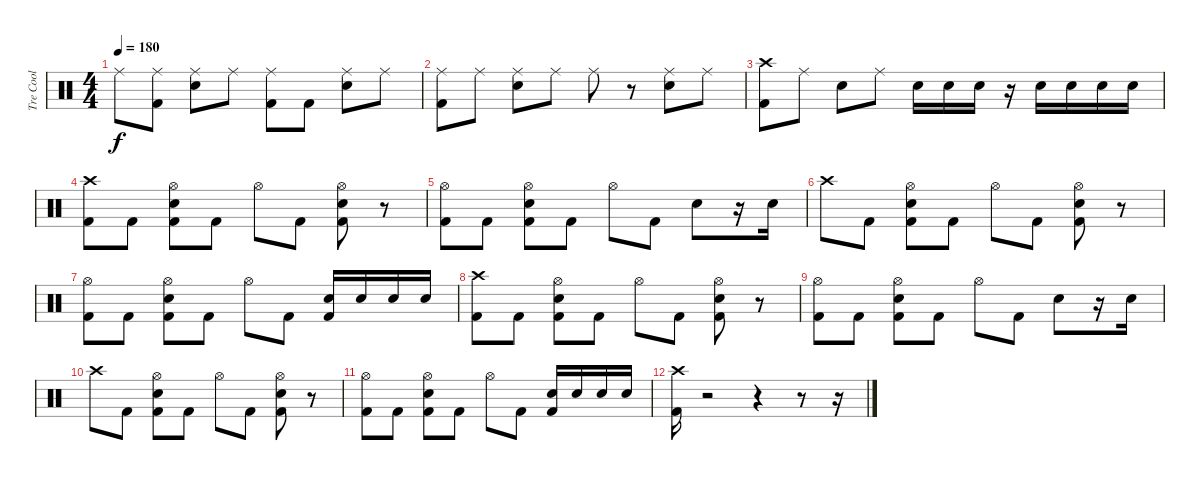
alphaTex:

\track ("Tre Cool" "Tre Cool") {instrument percussion}
\staff {score}
\articulation defaults
\ts (4 4)
\tempo 180
\clef neutral
\ks c "Ride (middle)".8{dy f}
("Kick (hit) 2" "Ride (middle)").8 ("Snare (hit) 2" "Ride (middle)").8 "Ride (middle)".8 ("Kick (hit) 2" "Ride (middle)").8 "Kick (hit) 2".8 ("Snare (hit) 2" "Ride (middle)").8 "Ride (middle)".8 |
("Ride (middle)" "Kick (hit) 2").8 "Ride (middle)".8 ("Ride (middle)" "Snare (hit) 2").8 "Ride (middle)".8 "Ride (middle)".8 r.8 ("Ride (middle)" "Snare (hit) 2").8 "Ride (middle)".8 |
("Crash high (hit)" "Kick (hit) 2").8 "Ride (middle)".8 "Snare (hit) 2".8 "Ride (middle)".8 "Snare (hit) 2".16 "Snare (hit) 2".16 "Snare (hit) 2".16 r.16 "Snare (hit) 2".16 "Snare (hit) 2".16 "Snare (hit) 2".16 "Snare (hit) 2".16 |
("Kick (hit) 2" "Crash high (hit)").8 "Kick (hit) 2".8 ("Snare (hit) 2" "Hi-Hat (open)" "Kick (hit) 2").8 "Kick (hit) 2".8 "Hi-Hat (open)".8 "Kick (hit) 2".8 ("Snare (hit) 2" "Hi-Hat (open)" "Kick (hit) 2").8 r.8 |
("Kick (hit) 2" "Hi-Hat (open)").8 "Kick (hit) 2".8 ("Snare (hit) 2" "Hi-Hat (open)" "Kick (hit) 2").8 "Kick (hit) 2".8 "Hi-Hat (open)".8 "Kick (hit) 2".8 "Snare (hit) 2".8 r.16 "Snare (hit) 2".16 |
"Crash high (hit)".8 "Kick (hit) 2".8 ("Snare (hit) 2" "Hi-Hat (open)" "Kick (hit) 2").8 "Kick (hit) 2".8 "Hi-Hat (open)".8 "Kick (hit) 2".8 ("Snare (hit) 2" "Hi-Hat (open)" "Kick (hit) 2").8 r.8 |
("Kick (hit) 2" "Hi-Hat (open)").8 "Kick (hit) 2".8 ("Snare (hit) 2" "Hi-Hat (open)" "Kick (hit) 2").8 "Kick (hit) 2".8 "Hi-Hat (open)".8 "Kick (hit) 2".8 ("Snare (hit) 2" "Kick (hit) 2").16 "Snare (hit) 2".16 "Snare (hit) 2".16 "Snare (hit) 2".16 |
("Crash high (hit)" "Kick (hit) 2").8 "Kick (hit) 2".8 ("Kick (hit) 2" "Hi-Hat (open)" "Snare (hit) 2").8 "Kick (hit) 2".8 "Hi-Hat (open)".8 "Kick (hit) 2".8 ("Kick (hit) 2" "Hi-Hat (open)" "Snare (hit) 2").8 r.8 |
("Hi-Hat (open)" "Kick (hit) 2").8 "Kick (hit) 2".8 ("Kick (hit) 2" "Hi-Hat (open)" "Snare (hit) 2").8 "Kick (hit) 2".8 "Hi-Hat (open)".8 "Kick (hit) 2".8 "Snare (hit) 2".8 r.16 "Snare (hit) 2".16 |
"Crash high (hit)".8 "Kick (hit) 2".8 ("Kick (hit) 2" "Hi-Hat (open)" "Snare (hit) 2").8 "Kick (hit) 2".8 "Hi-Hat (open)".8 "Kick (hit) 2".8 ("Kick (hit) 2" "Hi-Hat (open)" "Snare (hit) 2").8 r.8 |
("Hi-Hat (open)" "Kick (hit) 2").8 "Kick (hit) 2".8 ("Kick (hit) 2" "Hi-Hat (open)" "Snare (hit) 2").8 "Kick (hit) 2".8 "Hi-Hat (open)".8 "Kick (hit) 2".8 ("Kick (hit) 2" "Snare (hit) 2").16 "Snare (hit) 2".16 "Snare (hit) 2".16 "Snare (hit) 2".16 |
("Crash high (hit)" "Kick (hit) 2").16 r.2 r.4 r.8 r.16
